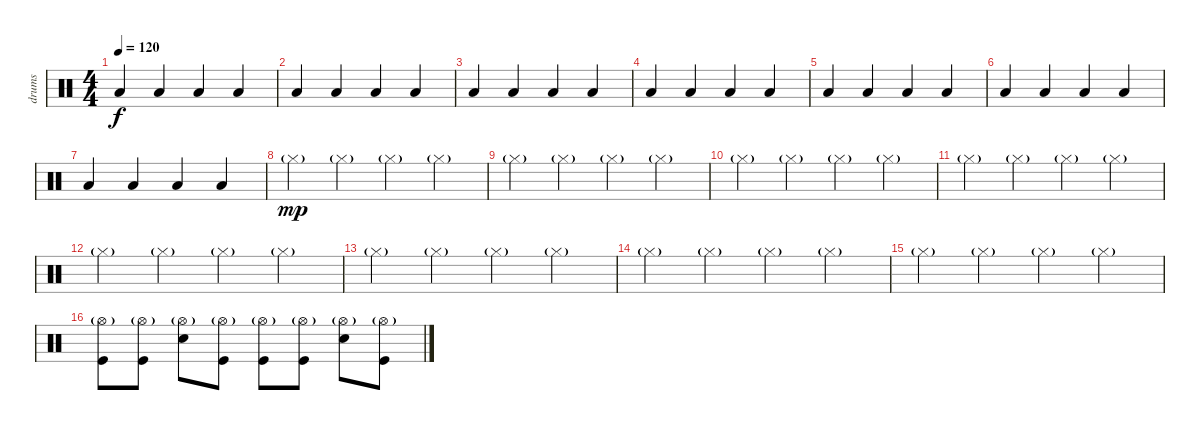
\track ("drums" "drums") {instrument percussion}
\staff {score}
\articulation defaults
\ts (4 4)
\tempo 120
\clef neutral
\ks c "Low Tom (hit)".4{dy f} "Low Tom (hit)".4 "Low Tom (hit)".4 "Low Tom (hit)".4
|
"Low Tom (hit)".4 "Low Tom (hit)".4 "Low Tom (hit)".4 "Low Tom (hit)".4 |
"Low Tom (hit)".4 "Low Tom (hit)".4 "Low Tom (hit)".4 "Low Tom (hit)".4 |
"Low Tom (hit)".4 "Low Tom (hit)".4 "Low Tom (hit)".4 "Low Tom (hit)".4 |
"Low Tom (hit)".4 "Low Tom (hit)".4 "Low Tom (hit)".4 "Low Tom (hit)".4 |
"Low Tom (hit)".4 "Low Tom (hit)".4 "Low Tom (hit)".4 "Low Tom (hit)".4 |
"Low Tom (hit)".4 "Low Tom (hit)".4 "Low Tom (hit)".4 "Low Tom (hit)".4 |
"Hi-Hat (closed)"{g}.4{dy mp} "Hi-Hat (closed)"{g}.4 "Hi-Hat (closed)"{g}.4 "Hi-Hat (closed)"{g}.4 |
"Hi-Hat (closed)"{g}.4 "Hi-Hat (closed)"{g}.4 "Hi-Hat (closed)"{g}.4 "Hi-Hat (closed)"{g}.4 |
"Hi-Hat (closed)"{g}.4 "Hi-Hat (closed)"{g}.4 "Hi-Hat (closed)"{g}.4 "Hi-Hat (closed)"{g}.4 |
"Hi-Hat (closed)"{g}.4 "Hi-Hat (closed)"{g}.4 "Hi-Hat (closed)"{g}.4 "Hi-Hat (closed)"{g}.4 |
"Hi-Hat (closed)"{g}.4 "Hi-Hat (closed)"{g}.4 "Hi-Hat (closed)"{g}.4 "Hi-Hat (closed)"{g}.4 |
"Hi-Hat (closed)"{g}.4 "Hi-Hat (closed)"{g}.4 "Hi-Hat (closed)"{g}.4 "Hi-Hat (closed)"{g}.4 |
"Hi-Hat (closed)"{g}.4 "Hi-Hat (closed)"{g}.4 "Hi-Hat (closed)"{g}.4 "Hi-Hat (closed)"{g}.4 |
"Hi-Hat (closed)"{g}.4 "Hi-Hat (closed)"{g}.4 "Hi-Hat (closed)"{g}.4 "Hi-Hat (closed)"{g}.4 |
("Kick (hit)" "Hi-Hat (open)"{g}).8 ("Kick (hit)" "Hi-Hat (open)"{g}).8 ("Electric Snare (hit)" "Hi-Hat (open)"{g}).8 ("Kick (hit)" "Hi-Hat (open)"{g}).8 ("Kick (hit)" "Hi-Hat (open)"{g}).8 ("Kick (hit)" "Hi-Hat (open)"{g}).8 ("Electric Snare (hit)" "Hi-Hat (open)"{g}).8 ("Kick (hit)" "Hi-Hat (open)"{g}).8
